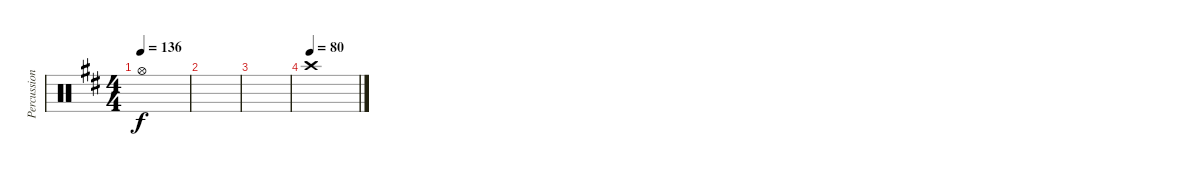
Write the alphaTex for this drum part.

\track ("Percussion" "Percussion") {instrument percussion}
\staff {score}
\articulation defaults
\ts (4 4)
\tempo 136
\clef neutral
\ks d "Hi-Hat (open)".1{dy f}
|
|
|
\tempo (80)
"Crash high (hit)".1
